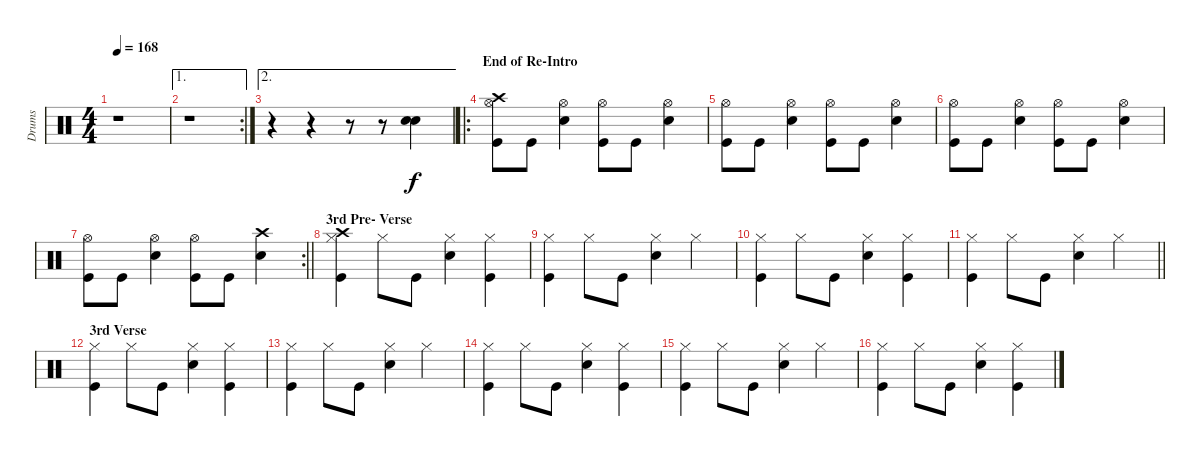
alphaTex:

\track ("Drums" "Drums") {instrument percussion}
\staff {score}
\articulation defaults
\ts (4 4)
\tempo 168
\clef neutral
\ks c
r.1{dy f} |
\ae 1
\rc 2
r.1 |
\ae 2
r.4 r.4 r.8 r.8 ("Snare (hit) 2" "Snare (hit) 2").4{bu 120} |
\ro
\section ("" "End of Re-Intro")
("Crash high (hit)" "Hi-Hat (open)" "Kick (hit)").8 "Kick (hit)".8 ("Hi-Hat (open)" "Snare (hit) 2").4 ("Hi-Hat (open)" "Kick (hit)").8 "Kick (hit)".8 ("Hi-Hat (open)" "Snare (hit) 2").4 |
("Hi-Hat (open)" "Kick (hit)").8 "Kick (hit)".8 ("Hi-Hat (open)" "Snare (hit) 2").4 ("Hi-Hat (open)" "Kick (hit)").8 "Kick (hit)".8 ("Hi-Hat (open)" "Snare (hit) 2").4 |
("Hi-Hat (open)" "Kick (hit)").8 "Kick (hit)".8 ("Hi-Hat (open)" "Snare (hit) 2").4 ("Hi-Hat (open)" "Kick (hit)").8 "Kick (hit)".8 ("Hi-Hat (open)" "Snare (hit) 2").4 |
\rc 2
\barLineRight lightlight
("Hi-Hat (open)" "Kick (hit)").8 "Kick (hit)".8 ("Hi-Hat (open)" "Snare (hit) 2").4 ("Hi-Hat (open)" "Kick (hit)").8 "Kick (hit)".8 ("Crash high (hit)" "Snare (hit) 2").4 |
\section ("" "3rd Pre- Verse")
("Crash high (hit)" "Hi-Hat (closed)" "Kick (hit)").4 "Hi-Hat (closed)".8 "Kick (hit)".8 ("Hi-Hat (closed)" "Electric Snare (hit)").4 ("Hi-Hat (closed)" "Kick (hit)").4 |
("Hi-Hat (closed)" "Kick (hit)").4 "Hi-Hat (closed)".8 "Kick (hit)".8 ("Hi-Hat (closed)" "Electric Snare (hit)").4 "Hi-Hat (closed)".4 |
("Hi-Hat (closed)" "Kick (hit)").4 "Hi-Hat (closed)".8 "Kick (hit)".8 ("Hi-Hat (closed)" "Electric Snare (hit)").4 ("Hi-Hat (closed)" "Kick (hit)").4 |
\barLineRight lightlight
("Hi-Hat (closed)" "Kick (hit)").4 "Hi-Hat (closed)".8 "Kick (hit)".8 ("Hi-Hat (closed)" "Electric Snare (hit)").4 "Hi-Hat (closed)".4 |
\section ("" "3rd Verse")
("Hi-Hat (closed)" "Kick (hit)").4 "Hi-Hat (closed)".8 "Kick (hit)".8 ("Hi-Hat (closed)" "Electric Snare (hit)").4 ("Hi-Hat (closed)" "Kick (hit)").4 |
("Hi-Hat (closed)" "Kick (hit)").4 "Hi-Hat (closed)".8 "Kick (hit)".8 ("Hi-Hat (closed)" "Electric Snare (hit)").4 "Hi-Hat (closed)".4 |
("Hi-Hat (closed)" "Kick (hit)").4 "Hi-Hat (closed)".8 "Kick (hit)".8 ("Hi-Hat (closed)" "Electric Snare (hit)").4 ("Hi-Hat (closed)" "Kick (hit)").4 |
("Hi-Hat (closed)" "Kick (hit)").4 "Hi-Hat (closed)".8 "Kick (hit)".8 ("Hi-Hat (closed)" "Electric Snare (hit)").4 "Hi-Hat (closed)".4 |
("Hi-Hat (closed)" "Kick (hit)").4 "Hi-Hat (closed)".8 "Kick (hit)".8 ("Hi-Hat (closed)" "Electric Snare (hit)").4 ("Hi-Hat (closed)" "Kick (hit)").4
